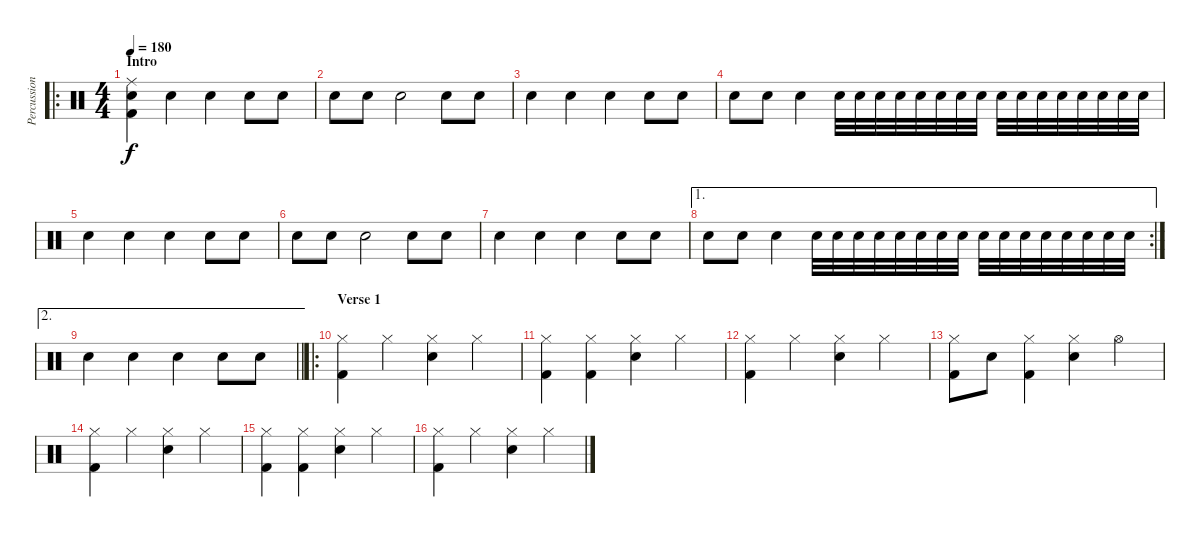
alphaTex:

\track ("Percussion" "Percussion") {instrument percussion}
\staff {score}
\articulation defaults
\ro
\ts (4 4)
\section ("" "Intro")
\tempo 180
\clef neutral
\ks c
("Ride (middle)" "Kick (hit) 2" "Electric Snare (hit)").4{dy f} "Electric Snare (hit)".4 "Electric Snare (hit)".4 "Electric Snare (hit)".8 "Electric Snare (hit)".8 |
"Electric Snare (hit)".8 "Electric Snare (hit)".8 "Electric Snare (hit)".2 "Electric Snare (hit)".8 "Electric Snare (hit)".8 |
"Electric Snare (hit)".4 "Electric Snare (hit)".4 "Electric Snare (hit)".4 "Electric Snare (hit)".8 "Electric Snare (hit)".8 |
"Electric Snare (hit)".8 "Electric Snare (hit)".8 "Electric Snare (hit)".4 "Electric Snare (hit)".32 "Electric Snare (hit)".32 "Electric Snare (hit)".32 "Electric Snare (hit)".32 "Electric Snare (hit)".32 "Electric Snare (hit)".32 "Electric Snare (hit)".32 "Electric Snare (hit)".32 "Electric Snare (hit)".32 "Electric Snare (hit)".32 "Electric Snare (hit)".32 "Electric Snare (hit)".32 "Electric Snare (hit)".32 "Electric Snare (hit)".32 "Electric Snare (hit)".32 "Electric Snare (hit)".32 |
"Electric Snare (hit)".4 "Electric Snare (hit)".4 "Electric Snare (hit)".4 "Electric Snare (hit)".8 "Electric Snare (hit)".8 |
"Electric Snare (hit)".8 "Electric Snare (hit)".8 "Electric Snare (hit)".2 "Electric Snare (hit)".8 "Electric Snare (hit)".8 |
"Electric Snare (hit)".4 "Electric Snare (hit)".4 "Electric Snare (hit)".4 "Electric Snare (hit)".8 "Electric Snare (hit)".8 |
\ae 1
\rc 2 "Electric Snare (hit)".8 "Electric Snare (hit)".8 "Electric Snare (hit)".4 "Electric Snare (hit)".32 "Electric Snare (hit)".32 "Electric Snare (hit)".32 "Electric Snare (hit)".32 "Electric Snare (hit)".32 "Electric Snare (hit)".32 "Electric Snare (hit)".32 "Electric Snare (hit)".32 "Electric Snare (hit)".32 "Electric Snare (hit)".32 "Electric Snare (hit)".32 "Electric Snare (hit)".32 "Electric Snare (hit)".32 "Electric Snare (hit)".32 "Electric Snare (hit)".32 "Electric Snare (hit)".32
|
\ae 2
\barLineRight lightlight "Electric Snare (hit)".4 "Electric Snare (hit)".4 "Electric Snare (hit)".4 "Snare (hit) 2".8 "Snare (hit) 2".8
|
\ro
\section ("" "Verse 1")
("Hi-Hat (closed)" "Kick (hit) 2").4 "Hi-Hat (closed)".4 ("Hi-Hat (closed)" "Snare (hit) 2").4 "Hi-Hat (closed)".4 |
("Hi-Hat (closed)" "Kick (hit) 2").4 ("Hi-Hat (closed)" "Kick (hit) 2").4 ("Hi-Hat (closed)" "Snare (hit) 2").4 "Hi-Hat (closed)".4 |
("Hi-Hat (closed)" "Kick (hit) 2").4 "Hi-Hat (closed)".4 ("Hi-Hat (closed)" "Snare (hit) 2").4 "Hi-Hat (closed)".4 |
("Hi-Hat (closed)" "Kick (hit) 2").8 "Snare (hit) 2".8 ("Hi-Hat (closed)" "Kick (hit) 2").4 ("Hi-Hat (closed)" "Snare (hit) 2").4 "Hi-Hat (open)".4 |
("Hi-Hat (closed)" "Kick (hit) 2").4 "Hi-Hat (closed)".4 ("Hi-Hat (closed)" "Snare (hit) 2").4 "Hi-Hat (closed)".4 |
("Hi-Hat (closed)" "Kick (hit) 2").4 ("Hi-Hat (closed)" "Kick (hit) 2").4 ("Hi-Hat (closed)" "Snare (hit) 2").4 "Hi-Hat (closed)".4 |
("Hi-Hat (closed)" "Kick (hit) 2").4 "Hi-Hat (closed)".4 ("Hi-Hat (closed)" "Snare (hit) 2").4 "Hi-Hat (closed)".4
